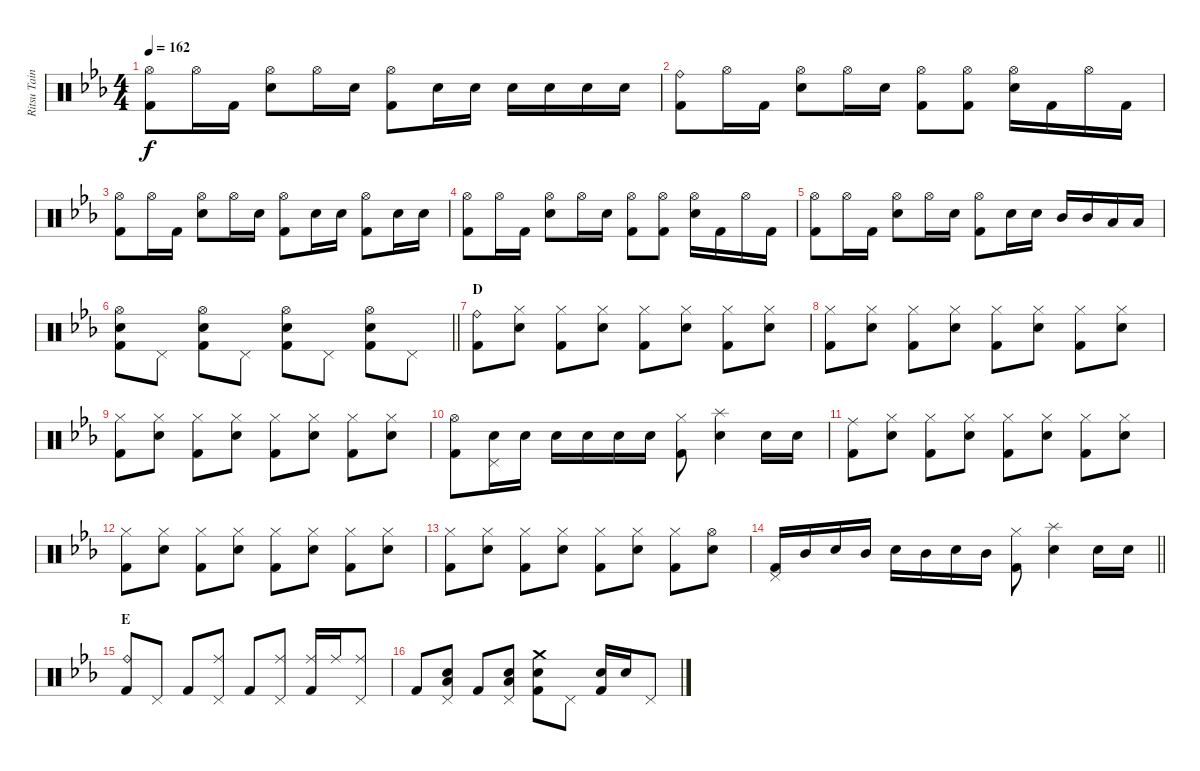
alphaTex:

\track ("Ritsu Tainaka" "Ritsu Tain") {instrument percussion}
\staff {score}
\articulation defaults
\ts (4 4)
\tempo 162
\clef neutral
\ks eb
("Hi-Hat (open)" "Kick (hit) 2").8{dy f} "Hi-Hat (open)".16 "Kick (hit) 2".16 ("Hi-Hat (open)" "Electric Snare (hit)").8 "Hi-Hat (open)".16 "Electric Snare (hit)".16 ("Hi-Hat (open)" "Kick (hit) 2").8 "Electric Snare (hit)".16 "Electric Snare (hit)".16 "Electric Snare (hit)".16 "Electric Snare (hit)".16 "Electric Snare (hit)".16 "Electric Snare (hit)".16 |
("Ride (bell)" "Kick (hit) 2").8 "Hi-Hat (open)".16 "Kick (hit) 2".16 ("Hi-Hat (open)" "Electric Snare (hit)").8 "Hi-Hat (open)".16 "Electric Snare (hit)".16 ("Hi-Hat (open)" "Kick (hit) 2").8 ("Hi-Hat (open)" "Kick (hit) 2").8 ("Hi-Hat (open)" "Electric Snare (hit)").16 "Kick (hit) 2".16 "Hi-Hat (open)".16 "Kick (hit) 2".16 |
("Hi-Hat (open)" "Kick (hit) 2").8 "Hi-Hat (open)".16 "Kick (hit) 2".16 ("Hi-Hat (open)" "Electric Snare (hit)").8 "Hi-Hat (open)".16 "Electric Snare (hit)".16 ("Hi-Hat (open)" "Kick (hit) 2").8 "Electric Snare (hit)".16 "Electric Snare (hit)".16 ("Hi-Hat (open)" "Kick (hit) 2").8 "Electric Snare (hit)".16 "Electric Snare (hit)".16 |
("Hi-Hat (open)" "Kick (hit) 2").8 "Hi-Hat (open)".16 "Kick (hit) 2".16 ("Hi-Hat (open)" "Electric Snare (hit)").8 "Hi-Hat (open)".16 "Electric Snare (hit)".16 ("Hi-Hat (open)" "Kick (hit) 2").8 ("Hi-Hat (open)" "Kick (hit) 2").8 ("Hi-Hat (open)" "Electric Snare (hit)").16 "Kick (hit) 2".16 "Hi-Hat (open)".16 "Kick (hit) 2".16 |
("Hi-Hat (open)" "Kick (hit) 2").8 "Hi-Hat (open)".16 "Kick (hit) 2".16 ("Hi-Hat (open)" "Electric Snare (hit)").8 "Hi-Hat (open)".16 "Electric Snare (hit)".16 ("Hi-Hat (open)" "Kick (hit) 2").8 "Electric Snare (hit)".16 "Electric Snare (hit)".16 "Mid Tom (hit)".16 "Mid Tom (hit)".16 "Low Tom (hit)".16 "Low Tom (hit)".16 |
\barLineRight lightlight
("Hi-Hat (open)" "Electric Snare (hit)" "Kick (hit) 2").8 "Pedal Hi-Hat (hit)".8 ("Hi-Hat (open)" "Electric Snare (hit)" "Kick (hit) 2").8 "Pedal Hi-Hat (hit)".8 ("Hi-Hat (open)" "Electric Snare (hit)" "Kick (hit) 2").8 "Pedal Hi-Hat (hit)".8 ("Hi-Hat (open)" "Electric Snare (hit)" "Kick (hit) 2").8 "Pedal Hi-Hat (hit)".8 |
\section ("" "D")
("Ride (bell)" "Kick (hit) 2").8 ("Hi-Hat (closed)" "Electric Snare (hit)").8 ("Hi-Hat (closed)" "Kick (hit) 2").8 ("Hi-Hat (closed)" "Electric Snare (hit)").8 ("Hi-Hat (closed)" "Kick (hit) 2").8 ("Hi-Hat (closed)" "Electric Snare (hit)").8 ("Hi-Hat (closed)" "Kick (hit) 2").8 ("Hi-Hat (closed)" "Electric Snare (hit)").8 |
("Hi-Hat (closed)" "Kick (hit) 2").8 ("Hi-Hat (closed)" "Electric Snare (hit)").8 ("Hi-Hat (closed)" "Kick (hit) 2").8 ("Hi-Hat (closed)" "Electric Snare (hit)").8 ("Hi-Hat (closed)" "Kick (hit) 2").8 ("Hi-Hat (closed)" "Electric Snare (hit)").8 ("Hi-Hat (closed)" "Kick (hit) 2").8 ("Hi-Hat (closed)" "Electric Snare (hit)").8 |
("Hi-Hat (closed)" "Kick (hit) 2").8 ("Hi-Hat (closed)" "Electric Snare (hit)").8 ("Hi-Hat (closed)" "Kick (hit) 2").8 ("Hi-Hat (closed)" "Electric Snare (hit)").8 ("Hi-Hat (closed)" "Kick (hit) 2").8 ("Hi-Hat (closed)" "Electric Snare (hit)").8 ("Hi-Hat (closed)" "Kick (hit) 2").8 ("Hi-Hat (closed)" "Electric Snare (hit)").8 |
("Hi-Hat (open)" "Kick (hit) 2").8 ("Pedal Hi-Hat (hit)" "Electric Snare (hit)").16 "Electric Snare (hit)".16 "Electric Snare (hit)".16 "Electric Snare (hit)".16 "Electric Snare (hit)".16 "Electric Snare (hit)".16 ("Hi-Hat (closed)" "Kick (hit) 2").8 ("Splash (hit)" "Electric Snare (hit)").4 "Electric Snare (hit)".16 "Electric Snare (hit)".16 |
("Ride (middle)" "Kick (hit) 2").8 ("Hi-Hat (closed)" "Electric Snare (hit)").8 ("Hi-Hat (closed)" "Kick (hit) 2").8 ("Hi-Hat (closed)" "Electric Snare (hit)").8 ("Hi-Hat (closed)" "Kick (hit) 2").8 ("Hi-Hat (closed)" "Electric Snare (hit)").8 ("Hi-Hat (closed)" "Kick (hit) 2").8 ("Hi-Hat (closed)" "Electric Snare (hit)").8 |
("Hi-Hat (closed)" "Kick (hit) 2").8 ("Hi-Hat (closed)" "Electric Snare (hit)").8 ("Hi-Hat (closed)" "Kick (hit) 2").8 ("Hi-Hat (closed)" "Electric Snare (hit)").8 ("Hi-Hat (closed)" "Kick (hit) 2").8 ("Hi-Hat (closed)" "Electric Snare (hit)").8 ("Hi-Hat (closed)" "Kick (hit) 2").8 ("Hi-Hat (closed)" "Electric Snare (hit)").8 |
("Hi-Hat (closed)" "Kick (hit) 2").8 ("Hi-Hat (closed)" "Electric Snare (hit)").8 ("Hi-Hat (closed)" "Kick (hit) 2").8 ("Hi-Hat (closed)" "Electric Snare (hit)").8 ("Hi-Hat (closed)" "Kick (hit) 2").8 ("Hi-Hat (closed)" "Electric Snare (hit)").8 ("Hi-Hat (closed)" "Kick (hit) 2").8 ("Hi-Hat (open)" "Electric Snare (hit)").8 |
\barLineRight lightlight
("Pedal Hi-Hat (hit)" "Kick (hit) 2").16 "Mid Tom (hit)".16 "Electric Snare (hit)".16 "Mid Tom (hit)".16 "Electric Snare (hit)".16 "Mid Tom (hit)".16 "Electric Snare (hit)".16 "Mid Tom (hit)".16 ("Hi-Hat (closed)" "Kick (hit) 2").8 ("Splash (hit)" "Electric Snare (hit)").4 "Electric Snare (hit)".16 "Electric Snare (hit)".16 |
\section ("" "E")
("Ride (bell)" "Kick (hit) 2").8 "Pedal Hi-Hat (hit)".8 "Kick (hit) 2".8 ("Ride (middle)" "Pedal Hi-Hat (hit)").8 "Kick (hit) 2".8 ("Ride (middle)" "Pedal Hi-Hat (hit)").8 ("Ride (middle)" "Kick (hit) 2").16 "Ride (middle)".16 ("Ride (middle)" "Pedal Hi-Hat (hit)").8 |
"Kick (hit) 2".8 ("Pedal Hi-Hat (hit)" "Electric Snare (hit)" "Low Floor Tom (hit)").8 "Kick (hit) 2".8 ("Pedal Hi-Hat (hit)" "Electric Snare (hit)" "Low Floor Tom (hit)").8 ("Crash medium (hit)" "Electric Snare (hit)" "Kick (hit) 2").8 "Pedal Hi-Hat (hit)".8 ("Electric Snare (hit)" "Kick (hit) 2").16 "Electric Snare (hit)".16 "Pedal Hi-Hat (hit)".8
